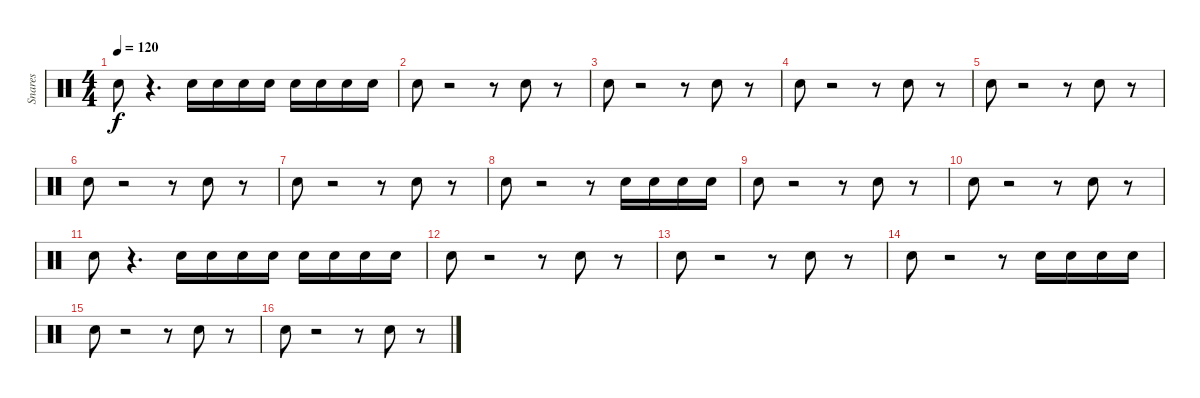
\track ("Snares              " "Snares    ") {instrument percussion}
\staff {score}
\articulation defaults
\ts (4 4)
\tempo 120
\clef neutral
\ks c "Snare (hit) 2".8{dy f}
r.4{d} "Snare (hit) 2".16 "Snare (hit) 2".16 "Snare (hit) 2".16 "Snare (hit) 2".16 "Snare (hit) 2".16 "Snare (hit) 2".16 "Snare (hit) 2".16 "Snare (hit) 2".16 |
"Snare (hit) 2".8 r.2 r.8 "Snare (hit) 2".8 r.8 |
"Snare (hit) 2".8 r.2 r.8 "Snare (hit) 2".8 r.8 |
"Snare (hit) 2".8 r.2 r.8 "Snare (hit) 2".8 r.8 |
"Snare (hit) 2".8 r.2 r.8 "Snare (hit) 2".8 r.8 |
"Snare (hit) 2".8 r.2 r.8 "Snare (hit) 2".8 r.8 |
"Snare (hit) 2".8 r.2 r.8 "Snare (hit) 2".8 r.8 |
"Snare (hit) 2".8 r.2 r.8 "Snare (hit) 2".16 "Snare (hit) 2".16 "Snare (hit) 2".16 "Snare (hit) 2".16 |
"Snare (hit) 2".8 r.2 r.8 "Snare (hit) 2".8 r.8 |
"Snare (hit) 2".8 r.2 r.8 "Snare (hit) 2".8 r.8 |
"Snare (hit) 2".8 r.4{d} "Snare (hit) 2".16 "Snare (hit) 2".16 "Snare (hit) 2".16 "Snare (hit) 2".16 "Snare (hit) 2".16 "Snare (hit) 2".16 "Snare (hit) 2".16 "Snare (hit) 2".16 |
"Snare (hit) 2".8 r.2 r.8 "Snare (hit) 2".8 r.8 |
"Snare (hit) 2".8 r.2 r.8 "Snare (hit) 2".8 r.8 |
"Snare (hit) 2".8 r.2 r.8 "Snare (hit) 2".16 "Snare (hit) 2".16 "Snare (hit) 2".16 "Snare (hit) 2".16 |
"Snare (hit) 2".8 r.2 r.8 "Snare (hit) 2".8 r.8 |
"Snare (hit) 2".8 r.2 r.8 "Snare (hit) 2".8 r.8
